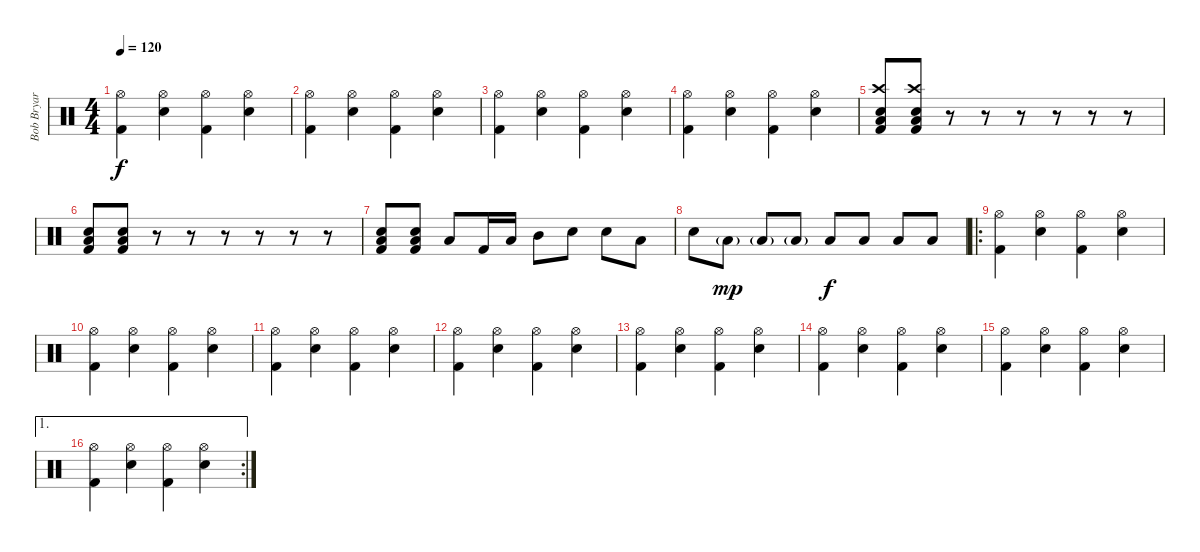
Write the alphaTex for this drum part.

\track ("Bob Bryar [Drums]" "Bob Bryar ") {instrument percussion}
\staff {score}
\articulation defaults
\ts (4 4)
\tempo 120
\clef neutral
\ks c
("Hi-Hat (open)" "Kick (hit) 2").4{dy f} ("Hi-Hat (open)" "Electric Snare (hit)").4 ("Hi-Hat (open)" "Kick (hit) 2").4 ("Hi-Hat (open)" "Electric Snare (hit)").4 |
("Hi-Hat (open)" "Kick (hit) 2").4 ("Hi-Hat (open)" "Electric Snare (hit)").4 ("Hi-Hat (open)" "Kick (hit) 2").4 ("Hi-Hat (open)" "Electric Snare (hit)").4 |
("Hi-Hat (open)" "Kick (hit) 2").4 ("Hi-Hat (open)" "Electric Snare (hit)").4 ("Hi-Hat (open)" "Kick (hit) 2").4 ("Hi-Hat (open)" "Electric Snare (hit)").4 |
("Hi-Hat (open)" "Kick (hit) 2").4 ("Hi-Hat (open)" "Electric Snare (hit)").4 ("Hi-Hat (open)" "Kick (hit) 2").4 ("Hi-Hat (open)" "Electric Snare (hit)").4 |
("Crash high (hit)" "Electric Snare (hit)" "Low Tom (hit)" "Kick (hit) 2").8 ("Crash high (hit)" "Electric Snare (hit)" "Low Tom (hit)" "Kick (hit) 2").8 r.8 r.8 r.8 r.8 r.8 r.8 |
("Electric Snare (hit)" "Low Tom (hit)" "Kick (hit) 2").8 ("Electric Snare (hit)" "Low Tom (hit)" "Kick (hit) 2").8 r.8 r.8 r.8 r.8 r.8 r.8 |
("Electric Snare (hit)" "Low Tom (hit)" "Kick (hit) 2").8 ("Electric Snare (hit)" "Low Tom (hit)" "Kick (hit) 2").8 "Low Tom (hit)".8 "Kick (hit) 2".16 "Low Tom (hit)".16 "Mid Tom (hit)".8 "Electric Snare (hit)".8 "Electric Snare (hit)".8 "Low Tom (hit)".8 |
"Electric Snare (hit)".8 "Low Tom (hit)"{g}.8{dy mp} "Low Tom (hit)"{g}.8 "Low Tom (hit)"{g}.8 "Low Tom (hit)".8{dy f} "Low Tom (hit)".8 "Low Tom (hit)".8 "Low Tom (hit)".8 |
\ro
("Hi-Hat (open)" "Kick (hit) 2").4 ("Hi-Hat (open)" "Electric Snare (hit)").4 ("Hi-Hat (open)" "Kick (hit) 2").4 ("Hi-Hat (open)" "Electric Snare (hit)").4 |
("Hi-Hat (open)" "Kick (hit) 2").4 ("Hi-Hat (open)" "Electric Snare (hit)").4 ("Hi-Hat (open)" "Kick (hit) 2").4 ("Hi-Hat (open)" "Electric Snare (hit)").4 |
("Hi-Hat (open)" "Kick (hit) 2").4 ("Hi-Hat (open)" "Electric Snare (hit)").4 ("Hi-Hat (open)" "Kick (hit) 2").4 ("Hi-Hat (open)" "Electric Snare (hit)").4 |
("Hi-Hat (open)" "Kick (hit) 2").4 ("Hi-Hat (open)" "Electric Snare (hit)").4 ("Hi-Hat (open)" "Kick (hit) 2").4 ("Hi-Hat (open)" "Electric Snare (hit)").4 |
("Hi-Hat (open)" "Kick (hit) 2").4 ("Hi-Hat (open)" "Electric Snare (hit)").4 ("Hi-Hat (open)" "Kick (hit) 2").4 ("Hi-Hat (open)" "Electric Snare (hit)").4 |
("Hi-Hat (open)" "Kick (hit) 2").4 ("Hi-Hat (open)" "Electric Snare (hit)").4 ("Hi-Hat (open)" "Kick (hit) 2").4 ("Hi-Hat (open)" "Electric Snare (hit)").4 |
("Hi-Hat (open)" "Kick (hit) 2").4 ("Hi-Hat (open)" "Electric Snare (hit)").4 ("Hi-Hat (open)" "Kick (hit) 2").4 ("Hi-Hat (open)" "Electric Snare (hit)").4 |
\ae 1
\rc 2
("Hi-Hat (open)" "Kick (hit) 2").4 ("Hi-Hat (open)" "Electric Snare (hit)").4 ("Hi-Hat (open)" "Kick (hit) 2").4 ("Hi-Hat (open)" "Electric Snare (hit)").4
